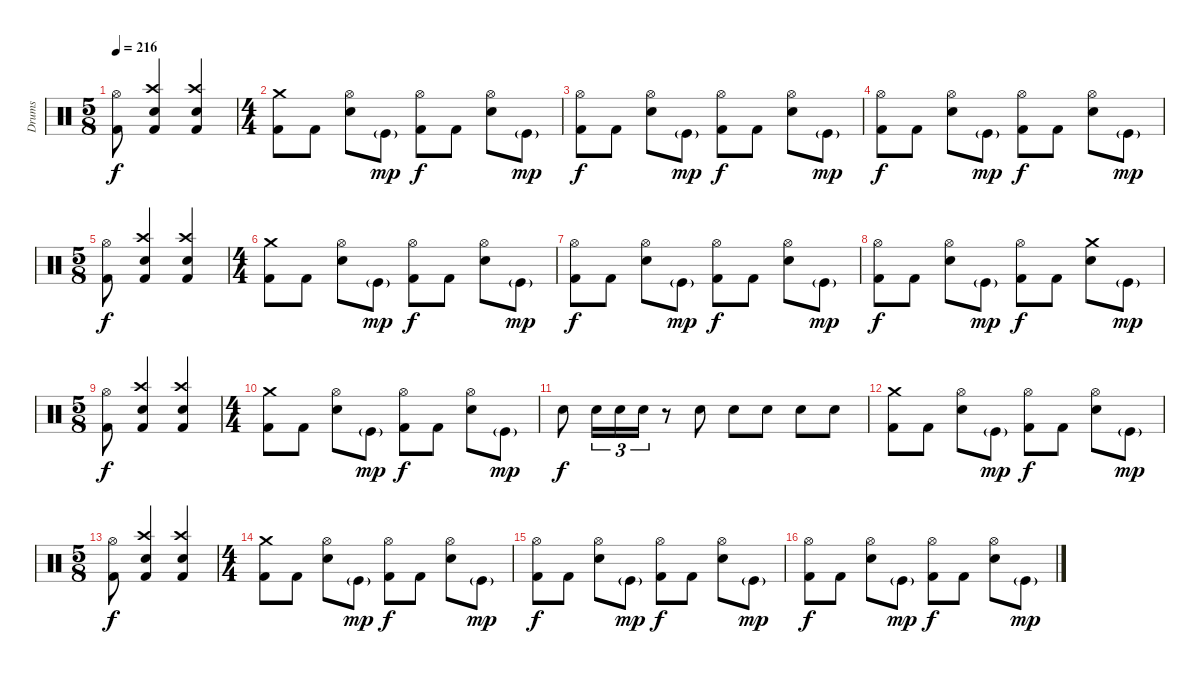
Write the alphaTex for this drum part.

\track ("Drums" "Drums") {instrument percussion}
\staff {score}
\articulation defaults
\ts (5 8)
\tempo 216
\clef neutral
\ks c
("Hi-Hat (open)" "Kick (hit) 2").8{dy f} ("Crash high (hit)" "Snare (hit) 2" "Kick (hit) 2").4 ("Crash high (hit)" "Snare (hit) 2" "Kick (hit) 2").4 |
\ts (4 4)
("Crash medium (hit)" "Kick (hit) 2").8 "Kick (hit) 2".8 ("Hi-Hat (open)" "Snare (hit) 2").8 "Kick (hit)"{g}.8{dy mp} ("Hi-Hat (open)" "Kick (hit) 2").8{dy f} "Kick (hit) 2".8 ("Hi-Hat (open)" "Snare (hit) 2").8 "Kick (hit)"{g}.8{dy mp} |
("Hi-Hat (open)" "Kick (hit) 2").8{dy f} "Kick (hit) 2".8 ("Hi-Hat (open)" "Snare (hit) 2").8 "Kick (hit)"{g}.8{dy mp} ("Hi-Hat (open)" "Kick (hit) 2").8{dy f} "Kick (hit) 2".8 ("Hi-Hat (open)" "Snare (hit) 2").8 "Kick (hit)"{g}.8{dy mp} |
("Hi-Hat (open)" "Kick (hit) 2").8{dy f} "Kick (hit) 2".8 ("Hi-Hat (open)" "Snare (hit) 2").8 "Kick (hit)"{g}.8{dy mp} ("Hi-Hat (open)" "Kick (hit) 2").8{dy f} "Kick (hit) 2".8 ("Hi-Hat (open)" "Snare (hit) 2").8 "Kick (hit)"{g}.8{dy mp} |
\ts (5 8)
("Hi-Hat (open)" "Kick (hit) 2").8{dy f} ("Crash high (hit)" "Snare (hit) 2" "Kick (hit) 2").4 ("Crash high (hit)" "Snare (hit) 2" "Kick (hit) 2").4 |
\ts (4 4)
("Crash medium (hit)" "Kick (hit) 2").8 "Kick (hit) 2".8 ("Hi-Hat (open)" "Snare (hit) 2").8 "Kick (hit)"{g}.8{dy mp} ("Hi-Hat (open)" "Kick (hit) 2").8{dy f} "Kick (hit) 2".8 ("Hi-Hat (open)" "Snare (hit) 2").8 "Kick (hit)"{g}.8{dy mp} |
("Hi-Hat (open)" "Kick (hit) 2").8{dy f} "Kick (hit) 2".8 ("Hi-Hat (open)" "Snare (hit) 2").8 "Kick (hit)"{g}.8{dy mp} ("Hi-Hat (open)" "Kick (hit) 2").8{dy f} "Kick (hit) 2".8 ("Hi-Hat (open)" "Snare (hit) 2").8 "Kick (hit)"{g}.8{dy mp} |
("Hi-Hat (open)" "Kick (hit) 2").8{dy f} "Kick (hit) 2".8 ("Hi-Hat (open)" "Snare (hit) 2").8 "Kick (hit)"{g}.8{dy mp} ("Hi-Hat (open)" "Kick (hit) 2").8{dy f} "Kick (hit) 2".8 ("Crash medium (hit)" "Snare (hit) 2").8 "Kick (hit)"{g}.8{dy mp} |
\ts (5 8)
("Hi-Hat (open)" "Kick (hit) 2").8{dy f} ("Crash high (hit)" "Snare (hit) 2" "Kick (hit) 2").4 ("Crash high (hit)" "Snare (hit) 2" "Kick (hit) 2").4 |
\ts (4 4)
("Crash medium (hit)" "Kick (hit) 2").8 "Kick (hit) 2".8 ("Hi-Hat (open)" "Snare (hit) 2").8 "Kick (hit)"{g}.8{dy mp} ("Hi-Hat (open)" "Kick (hit) 2").8{dy f} "Kick (hit) 2".8 ("Hi-Hat (open)" "Snare (hit) 2").8 "Kick (hit)"{g}.8{dy mp} |
"Snare (hit) 2".8{dy f} "Snare (hit) 2".16{tu (3 2)} "Snare (hit) 2".16{tu (3 2)} "Snare (hit) 2".16{tu (3 2)} r.8 "Snare (hit) 2".8 "Snare (hit) 2".8 "Snare (hit) 2".8 "Snare (hit) 2".8 "Snare (hit) 2".8 |
("Crash medium (hit)" "Kick (hit) 2").8 "Kick (hit) 2".8 ("Hi-Hat (open)" "Snare (hit) 2").8 "Kick (hit)"{g}.8{dy mp} ("Hi-Hat (open)" "Kick (hit) 2").8{dy f} "Kick (hit) 2".8 ("Hi-Hat (open)" "Snare (hit) 2").8 "Kick (hit)"{g}.8{dy mp} |
\ts (5 8)
("Hi-Hat (open)" "Kick (hit) 2").8{dy f} ("Crash high (hit)" "Snare (hit) 2" "Kick (hit) 2").4 ("Crash high (hit)" "Snare (hit) 2" "Kick (hit) 2").4 |
\ts (4 4)
("Crash medium (hit)" "Kick (hit) 2").8 "Kick (hit) 2".8 ("Hi-Hat (open)" "Snare (hit) 2").8 "Kick (hit)"{g}.8{dy mp} ("Hi-Hat (open)" "Kick (hit) 2").8{dy f} "Kick (hit) 2".8 ("Hi-Hat (open)" "Snare (hit) 2").8 "Kick (hit)"{g}.8{dy mp} |
("Hi-Hat (open)" "Kick (hit) 2").8{dy f} "Kick (hit) 2".8 ("Hi-Hat (open)" "Snare (hit) 2").8 "Kick (hit)"{g}.8{dy mp} ("Hi-Hat (open)" "Kick (hit) 2").8{dy f} "Kick (hit) 2".8 ("Hi-Hat (open)" "Snare (hit) 2").8 "Kick (hit)"{g}.8{dy mp} |
("Hi-Hat (open)" "Kick (hit) 2").8{dy f} "Kick (hit) 2".8 ("Hi-Hat (open)" "Snare (hit) 2").8 "Kick (hit)"{g}.8{dy mp} ("Hi-Hat (open)" "Kick (hit) 2").8{dy f} "Kick (hit) 2".8 ("Hi-Hat (open)" "Snare (hit) 2").8 "Kick (hit)"{g}.8{dy mp}
